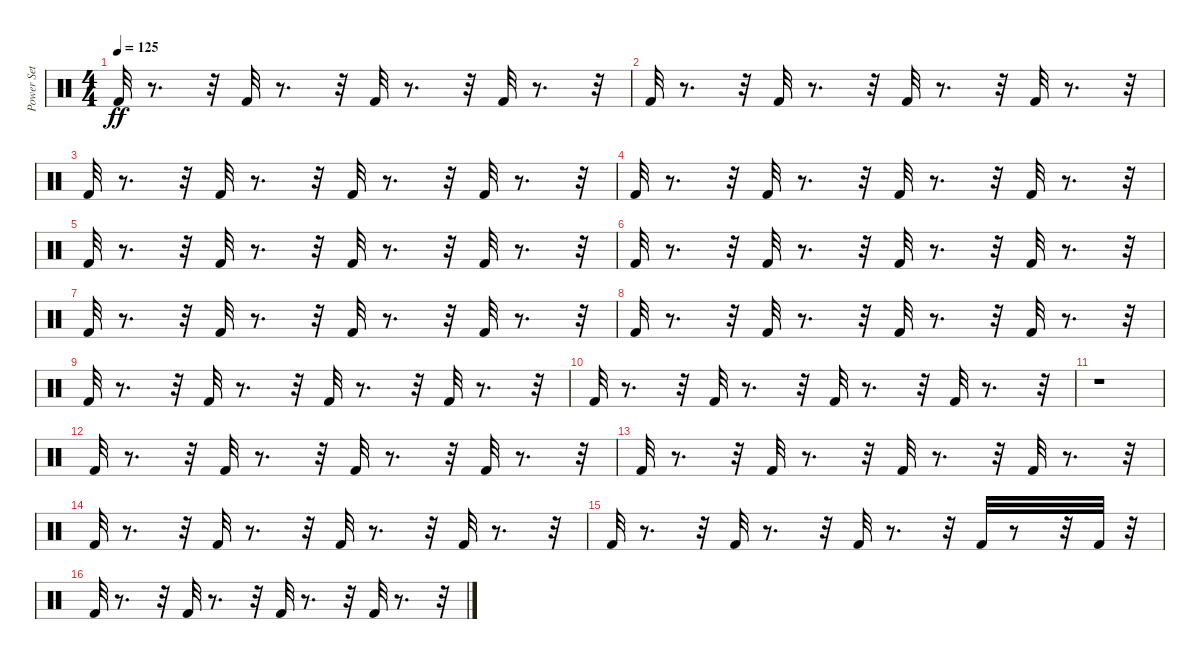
\track ("Power Set" "Power Set") {instrument percussion}
\staff {score}
\articulation defaults
\ts (4 4)
\tempo 125
\clef neutral
\ks c "Kick (hit) 2".32{dy ff}
r.8{d} r.32 "Kick (hit) 2".32 r.8{d} r.32 "Kick (hit) 2".32 r.8{d} r.32 "Kick (hit) 2".32 r.8{d} r.32 |
"Kick (hit) 2".32 r.8{d} r.32 "Kick (hit) 2".32 r.8{d} r.32 "Kick (hit) 2".32 r.8{d} r.32 "Kick (hit) 2".32 r.8{d} r.32 |
"Kick (hit) 2".32 r.8{d} r.32 "Kick (hit) 2".32 r.8{d} r.32 "Kick (hit) 2".32 r.8{d} r.32 "Kick (hit) 2".32 r.8{d} r.32 |
"Kick (hit) 2".32 r.8{d} r.32 "Kick (hit) 2".32 r.8{d} r.32 "Kick (hit) 2".32 r.8{d} r.32 "Kick (hit) 2".32 r.8{d} r.32 |
"Kick (hit) 2".32 r.8{d} r.32 "Kick (hit) 2".32 r.8{d} r.32 "Kick (hit) 2".32 r.8{d} r.32 "Kick (hit) 2".32 r.8{d} r.32 |
"Kick (hit) 2".32 r.8{d} r.32 "Kick (hit) 2".32 r.8{d} r.32 "Kick (hit) 2".32 r.8{d} r.32 "Kick (hit) 2".32 r.8{d} r.32 |
"Kick (hit) 2".32 r.8{d} r.32 "Kick (hit) 2".32 r.8{d} r.32 "Kick (hit) 2".32 r.8{d} r.32 "Kick (hit) 2".32 r.8{d} r.32 |
"Kick (hit) 2".32 r.8{d} r.32 "Kick (hit) 2".32 r.8{d} r.32 "Kick (hit) 2".32 r.8{d} r.32 "Kick (hit) 2".32 r.8{d} r.32 |
"Kick (hit) 2".32 r.8{d} r.32 "Kick (hit) 2".32 r.8{d} r.32 "Kick (hit) 2".32 r.8{d} r.32 "Kick (hit) 2".32 r.8{d} r.32 |
"Kick (hit) 2".32 r.8{d} r.32 "Kick (hit) 2".32 r.8{d} r.32 "Kick (hit) 2".32 r.8{d} r.32 "Kick (hit) 2".32 r.8{d} r.32 |
r.1 |
"Kick (hit) 2".32 r.8{d} r.32 "Kick (hit) 2".32 r.8{d} r.32 "Kick (hit) 2".32 r.8{d} r.32 "Kick (hit) 2".32 r.8{d} r.32 |
"Kick (hit) 2".32 r.8{d} r.32 "Kick (hit) 2".32 r.8{d} r.32 "Kick (hit) 2".32 r.8{d} r.32 "Kick (hit) 2".32 r.8{d} r.32 |
"Kick (hit) 2".32 r.8{d} r.32 "Kick (hit) 2".32 r.8{d} r.32 "Kick (hit) 2".32 r.8{d} r.32 "Kick (hit) 2".32 r.8{d} r.32 |
"Kick (hit) 2".32 r.8{d} r.32 "Kick (hit) 2".32 r.8{d} r.32 "Kick (hit) 2".32 r.8{d} r.32 "Kick (hit) 2".32 r.8 r.32 "Kick (hit) 2".32 r.32 |
"Kick (hit) 2".32 r.8{d} r.32 "Kick (hit) 2".32 r.8{d} r.32 "Kick (hit) 2".32 r.8{d} r.32 "Kick (hit) 2".32 r.8{d} r.32
